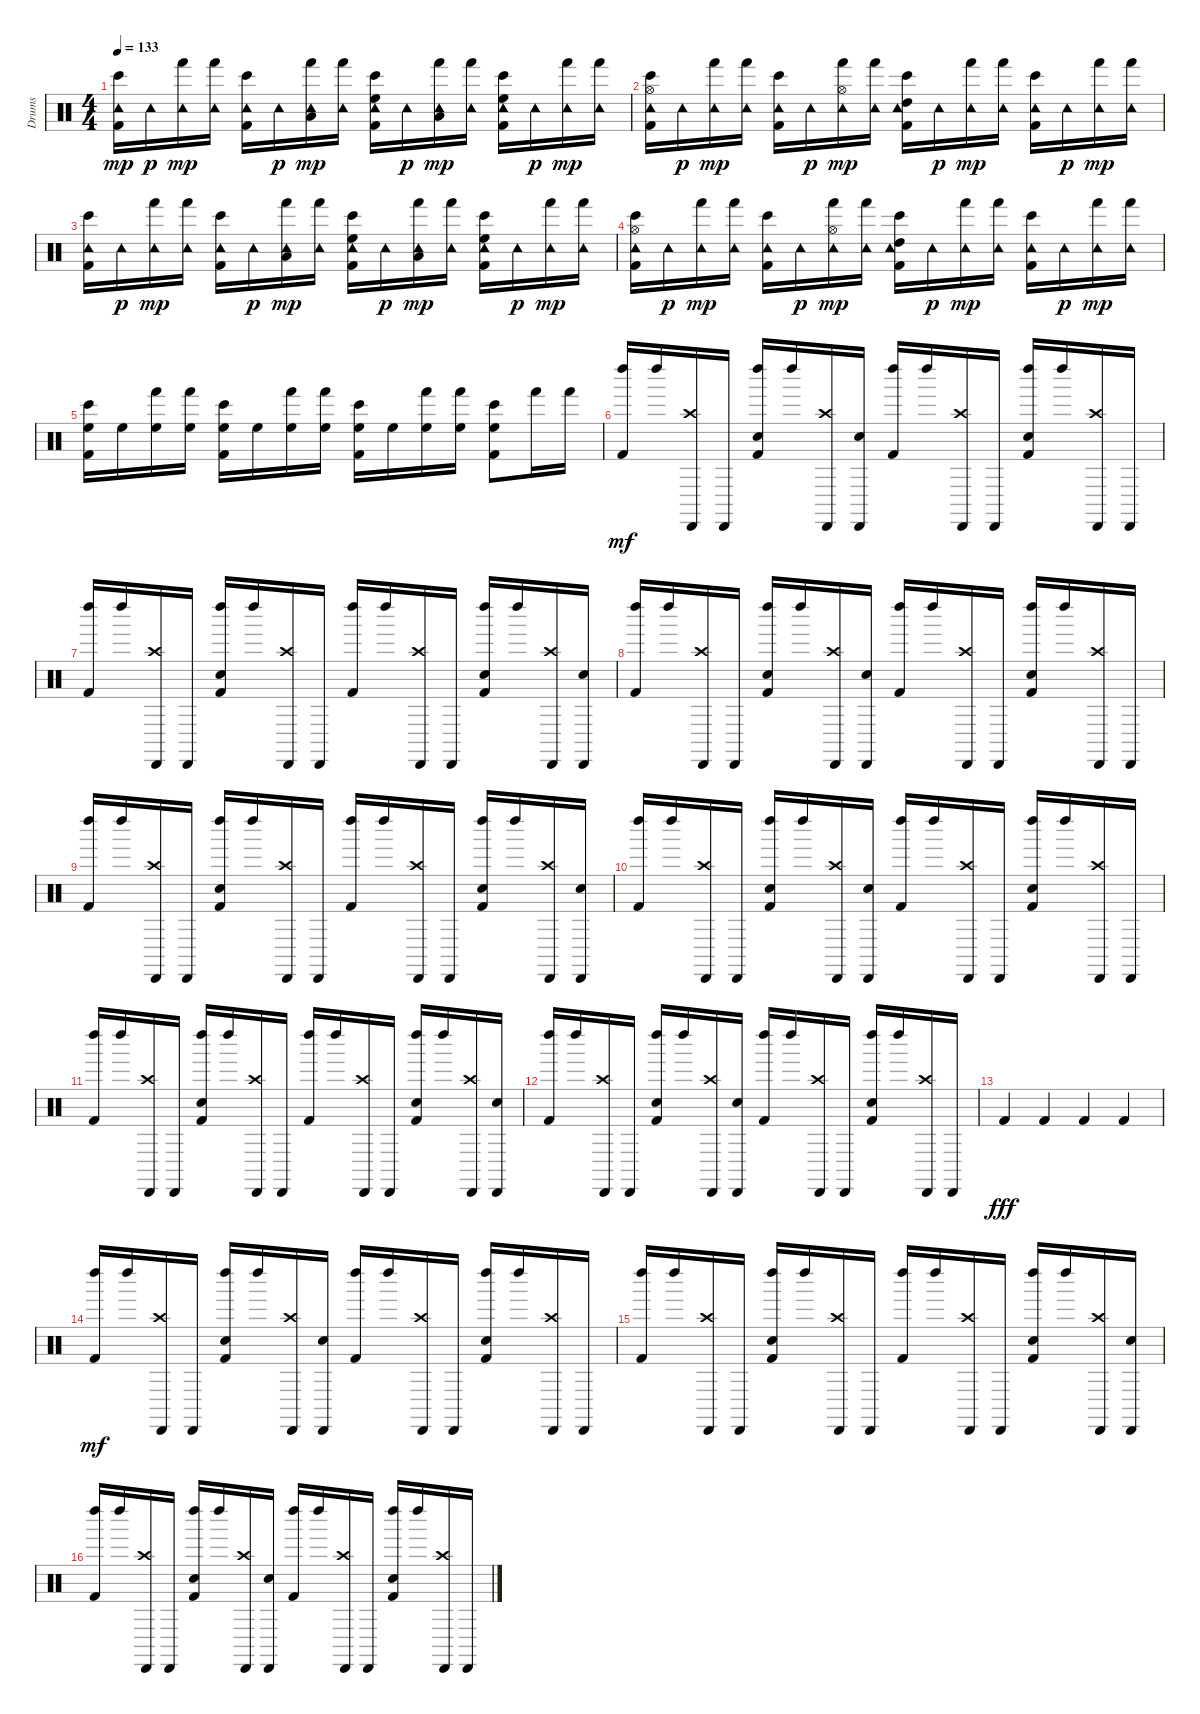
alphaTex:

\track ("Drums" "Drums") {instrument percussion}
\staff {score}
\articulation defaults
\ts (4 4)
\tempo 133
\clef neutral
\ks c
("Kick (hit) 2" "Tambourine (hit)" "Bongo High (hit)").16{dy mp} "Tambourine (hit)".16{dy p} ("Tambourine (hit)" "Hand (hit)").16{dy mp} ("Tambourine (hit)" "Hand (hit)").16 ("Kick (hit) 2" "Tambourine (hit)" "Bongo High (hit)").16 "Tambourine (hit)".16{dy p} ("Tambourine (hit)" "Hand (hit)" "Low Tom (hit)").16{dy mp} ("Tambourine (hit)" "Hand (hit)").16 ("Kick (hit) 2" "Tambourine (hit)" "Bongo High (hit)" "High Floor Tom (hit)").16 "Tambourine (hit)".16{dy p} ("Tambourine (hit)" "Hand (hit)" "Low Tom (hit)").16{dy mp} ("Tambourine (hit)" "Hand (hit)").16 ("Kick (hit) 2" "Tambourine (hit)" "Bongo High (hit)" "High Floor Tom (hit)").16 "Tambourine (hit)".16{dy p} ("Tambourine (hit)" "Hand (hit)").16{dy mp} ("Tambourine (hit)" "Hand (hit)").16 |
("Kick (hit) 2" "Tambourine (hit)" "Bongo High (hit)" "Hi-Hat (open)").16 "Tambourine (hit)".16{dy p} ("Tambourine (hit)" "Hand (hit)").16{dy mp} ("Tambourine (hit)" "Hand (hit)").16 ("Kick (hit) 2" "Tambourine (hit)" "Bongo High (hit)").16 "Tambourine (hit)".16{dy p} ("Tambourine (hit)" "Hand (hit)" "Hi-Hat (open)").16{dy mp} ("Tambourine (hit)" "Hand (hit)").16 ("Kick (hit) 2" "Tambourine (hit)" "Bongo High (hit)" "High Tom (hit)").16 "Tambourine (hit)".16{dy p} ("Tambourine (hit)" "Hand (hit)").16{dy mp} ("Tambourine (hit)" "Hand (hit)").16 ("Kick (hit) 2" "Tambourine (hit)" "Bongo High (hit)").16 "Tambourine (hit)".16{dy p} ("Tambourine (hit)" "Hand (hit)").16{dy mp} ("Tambourine (hit)" "Hand (hit)").16 |
("Kick (hit) 2" "Tambourine (hit)" "Bongo High (hit)").16 "Tambourine (hit)".16{dy p} ("Tambourine (hit)" "Hand (hit)").16{dy mp} ("Tambourine (hit)" "Hand (hit)").16 ("Kick (hit) 2" "Tambourine (hit)" "Bongo High (hit)").16 "Tambourine (hit)".16{dy p} ("Tambourine (hit)" "Hand (hit)" "Low Tom (hit)").16{dy mp} ("Tambourine (hit)" "Hand (hit)").16 ("Kick (hit) 2" "Tambourine (hit)" "Bongo High (hit)" "High Floor Tom (hit)").16 "Tambourine (hit)".16{dy p} ("Tambourine (hit)" "Hand (hit)" "Low Tom (hit)").16{dy mp} ("Tambourine (hit)" "Hand (hit)").16 ("Kick (hit) 2" "Tambourine (hit)" "Bongo High (hit)" "High Floor Tom (hit)").16 "Tambourine (hit)".16{dy p} ("Tambourine (hit)" "Hand (hit)").16{dy mp} ("Tambourine (hit)" "Hand (hit)").16 |
("Kick (hit) 2" "Tambourine (hit)" "Bongo High (hit)" "Hi-Hat (open)").16 "Tambourine (hit)".16{dy p} ("Tambourine (hit)" "Hand (hit)").16{dy mp} ("Tambourine (hit)" "Hand (hit)").16 ("Kick (hit) 2" "Tambourine (hit)" "Bongo High (hit)").16 "Tambourine (hit)".16{dy p} ("Tambourine (hit)" "Hand (hit)" "Hi-Hat (open)").16{dy mp} ("Tambourine (hit)" "Hand (hit)").16 ("Kick (hit) 2" "Tambourine (hit)" "Bongo High (hit)" "High Tom (hit)").16 "Tambourine (hit)".16{dy p} ("Tambourine (hit)" "Hand (hit)").16{dy mp} ("Tambourine (hit)" "Hand (hit)").16 ("Kick (hit) 2" "Tambourine (hit)" "Bongo High (hit)").16 "Tambourine (hit)".16{dy p} ("Tambourine (hit)" "Hand (hit)").16{dy mp} ("Tambourine (hit)" "Hand (hit)").16 |
("Kick (hit) 2" "Bongo High (hit)" "High Floor Tom (hit)").16 "High Floor Tom (hit)".16{volume 1} ("Hand (hit)" "High Floor Tom (hit)").16{volume 2} ("Hand (hit)" "High Floor Tom (hit)").16{volume 3} ("Kick (hit) 2" "Bongo High (hit)" "High Floor Tom (hit)").16{volume 4} "High Floor Tom (hit)".16{volume 4} ("Hand (hit)" "High Floor Tom (hit)").16{volume 5} ("Hand (hit)" "High Floor Tom (hit)").16{volume 6} ("Kick (hit) 2" "Bongo High (hit)" "High Floor Tom (hit)").16{volume 6} "High Floor Tom (hit)".16{volume 7} ("Hand (hit)" "High Floor Tom (hit)").16{volume 8} ("Hand (hit)" "High Floor Tom (hit)").16{volume 9} ("Kick (hit) 2" "Bongo High (hit)" "High Floor Tom (hit)").8{volume 10} "Hand (hit)".16 "Hand (hit)".16 |
("Kick (hit) 2" "Left Maraca (hit)").16{dy mf} "Left Maraca (hit)".16 ("Crash high (hit)" "Cabasa (hit)").16 "Cabasa (hit)".16 ("Kick (hit) 2" "Hand Clap (hit)" "Left Maraca (hit)").16 "Left Maraca (hit)".16 ("Crash high (hit)" "Cabasa (hit)").16 ("Cabasa (hit)" "Snare (hit) 2").16 ("Kick (hit) 2" "Left Maraca (hit)").16 "Left Maraca (hit)".16 ("Crash high (hit)" "Cabasa (hit)").16 "Cabasa (hit)".16 ("Kick (hit) 2" "Hand Clap (hit)" "Left Maraca (hit)").16 "Left Maraca (hit)".16 ("Crash high (hit)" "Cabasa (hit)").16 "Cabasa (hit)".16 |
("Kick (hit) 2" "Left Maraca (hit)").16 "Left Maraca (hit)".16 ("Crash high (hit)" "Cabasa (hit)").16 "Cabasa (hit)".16 ("Kick (hit) 2" "Hand Clap (hit)" "Left Maraca (hit)").16 "Left Maraca (hit)".16 ("Crash high (hit)" "Cabasa (hit)").16 "Cabasa (hit)".16 ("Kick (hit) 2" "Left Maraca (hit)").16 "Left Maraca (hit)".16 ("Crash high (hit)" "Cabasa (hit)").16 "Cabasa (hit)".16 ("Kick (hit) 2" "Hand Clap (hit)" "Left Maraca (hit)").16 "Left Maraca (hit)".16 ("Crash high (hit)" "Cabasa (hit)").16 ("Cabasa (hit)" "Snare (hit) 2").16 |
("Kick (hit) 2" "Left Maraca (hit)").16 "Left Maraca (hit)".16 ("Crash high (hit)" "Cabasa (hit)").16 "Cabasa (hit)".16 ("Kick (hit) 2" "Hand Clap (hit)" "Left Maraca (hit)").16 "Left Maraca (hit)".16 ("Crash high (hit)" "Cabasa (hit)").16 ("Cabasa (hit)" "Snare (hit) 2").16 ("Kick (hit) 2" "Left Maraca (hit)").16 "Left Maraca (hit)".16 ("Crash high (hit)" "Cabasa (hit)").16 "Cabasa (hit)".16 ("Kick (hit) 2" "Hand Clap (hit)" "Left Maraca (hit)").16 "Left Maraca (hit)".16 ("Crash high (hit)" "Cabasa (hit)").16 "Cabasa (hit)".16 |
("Kick (hit) 2" "Left Maraca (hit)").16 "Left Maraca (hit)".16 ("Crash high (hit)" "Cabasa (hit)").16 "Cabasa (hit)".16 ("Kick (hit) 2" "Hand Clap (hit)" "Left Maraca (hit)").16 "Left Maraca (hit)".16 ("Crash high (hit)" "Cabasa (hit)").16 "Cabasa (hit)".16 ("Kick (hit) 2" "Left Maraca (hit)").16 "Left Maraca (hit)".16 ("Crash high (hit)" "Cabasa (hit)").16 "Cabasa (hit)".16 ("Kick (hit) 2" "Hand Clap (hit)" "Left Maraca (hit)").16 "Left Maraca (hit)".16 ("Crash high (hit)" "Cabasa (hit)").16 ("Cabasa (hit)" "Snare (hit) 2").16 |
("Kick (hit) 2" "Left Maraca (hit)").16 "Left Maraca (hit)".16 ("Crash high (hit)" "Cabasa (hit)").16 "Cabasa (hit)".16 ("Kick (hit) 2" "Hand Clap (hit)" "Left Maraca (hit)").16 "Left Maraca (hit)".16 ("Crash high (hit)" "Cabasa (hit)").16 ("Cabasa (hit)" "Snare (hit) 2").16 ("Kick (hit) 2" "Left Maraca (hit)").16 "Left Maraca (hit)".16 ("Crash high (hit)" "Cabasa (hit)").16 "Cabasa (hit)".16 ("Kick (hit) 2" "Hand Clap (hit)" "Left Maraca (hit)").16 "Left Maraca (hit)".16 ("Crash high (hit)" "Cabasa (hit)").16 "Cabasa (hit)".16 |
("Kick (hit) 2" "Left Maraca (hit)").16 "Left Maraca (hit)".16 ("Crash high (hit)" "Cabasa (hit)").16 "Cabasa (hit)".16 ("Kick (hit) 2" "Hand Clap (hit)" "Left Maraca (hit)").16 "Left Maraca (hit)".16 ("Crash high (hit)" "Cabasa (hit)").16 "Cabasa (hit)".16 ("Kick (hit) 2" "Left Maraca (hit)").16 "Left Maraca (hit)".16 ("Crash high (hit)" "Cabasa (hit)").16 "Cabasa (hit)".16 ("Kick (hit) 2" "Hand Clap (hit)" "Left Maraca (hit)").16 "Left Maraca (hit)".16 ("Crash high (hit)" "Cabasa (hit)").16 ("Cabasa (hit)" "Snare (hit) 2").16 |
("Kick (hit) 2" "Left Maraca (hit)").16 "Left Maraca (hit)".16 ("Crash high (hit)" "Cabasa (hit)").16 "Cabasa (hit)".16 ("Kick (hit) 2" "Hand Clap (hit)" "Left Maraca (hit)").16 "Left Maraca (hit)".16 ("Crash high (hit)" "Cabasa (hit)").16 ("Cabasa (hit)" "Snare (hit) 2").16 ("Kick (hit) 2" "Left Maraca (hit)").16 "Left Maraca (hit)".16 ("Crash high (hit)" "Cabasa (hit)").16 "Cabasa (hit)".16 ("Kick (hit) 2" "Hand Clap (hit)" "Left Maraca (hit)").16 "Left Maraca (hit)".16 ("Crash high (hit)" "Cabasa (hit)").16 "Cabasa (hit)".16 |
"Kick (hit) 2".4{dy fff} "Kick (hit) 2".4 "Kick (hit) 2".4 "Kick (hit) 2".4 |
("Kick (hit) 2" "Left Maraca (hit)").16{dy mf} "Left Maraca (hit)".16 ("Crash high (hit)" "Cabasa (hit)").16 "Cabasa (hit)".16 ("Kick (hit) 2" "Hand Clap (hit)" "Left Maraca (hit)").16 "Left Maraca (hit)".16 ("Crash high (hit)" "Cabasa (hit)").16 ("Cabasa (hit)" "Snare (hit) 2").16 ("Kick (hit) 2" "Left Maraca (hit)").16 "Left Maraca (hit)".16 ("Crash high (hit)" "Cabasa (hit)").16 "Cabasa (hit)".16 ("Kick (hit) 2" "Hand Clap (hit)" "Left Maraca (hit)").16 "Left Maraca (hit)".16 ("Crash high (hit)" "Cabasa (hit)").16 "Cabasa (hit)".16 |
("Kick (hit) 2" "Left Maraca (hit)").16 "Left Maraca (hit)".16 ("Crash high (hit)" "Cabasa (hit)").16 "Cabasa (hit)".16 ("Kick (hit) 2" "Hand Clap (hit)" "Left Maraca (hit)").16 "Left Maraca (hit)".16 ("Crash high (hit)" "Cabasa (hit)").16 "Cabasa (hit)".16 ("Kick (hit) 2" "Left Maraca (hit)").16 "Left Maraca (hit)".16 ("Crash high (hit)" "Cabasa (hit)").16 "Cabasa (hit)".16 ("Kick (hit) 2" "Hand Clap (hit)" "Left Maraca (hit)").16 "Left Maraca (hit)".16 ("Crash high (hit)" "Cabasa (hit)").16 ("Cabasa (hit)" "Snare (hit) 2").16 |
("Kick (hit) 2" "Left Maraca (hit)").16 "Left Maraca (hit)".16 ("Crash high (hit)" "Cabasa (hit)").16 "Cabasa (hit)".16 ("Kick (hit) 2" "Hand Clap (hit)" "Left Maraca (hit)").16 "Left Maraca (hit)".16 ("Crash high (hit)" "Cabasa (hit)").16 ("Cabasa (hit)" "Snare (hit) 2").16 ("Kick (hit) 2" "Left Maraca (hit)").16 "Left Maraca (hit)".16 ("Crash high (hit)" "Cabasa (hit)").16 "Cabasa (hit)".16 ("Kick (hit) 2" "Hand Clap (hit)" "Left Maraca (hit)").16 "Left Maraca (hit)".16 ("Crash high (hit)" "Cabasa (hit)").16 "Cabasa (hit)".16
